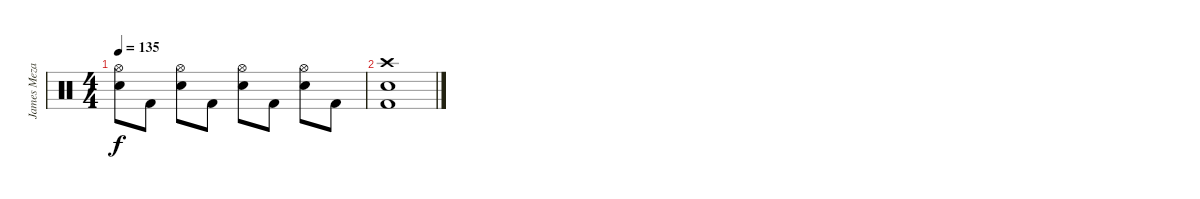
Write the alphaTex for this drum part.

\track ("James Meza - Drums" "James Meza") {instrument percussion}
\staff {score}
\articulation defaults
\ts (4 4)
\tempo 135
\clef neutral
\ks c
("Hi-Hat (open)" "Electric Snare (hit)").8{dy f} "Kick (hit) 2".8 ("Hi-Hat (open)" "Electric Snare (hit)").8 "Kick (hit) 2".8 ("Hi-Hat (open)" "Electric Snare (hit)").8 "Kick (hit) 2".8 ("Hi-Hat (open)" "Electric Snare (hit)").8 "Kick (hit) 2".8 |
("Crash high (hit)" "Electric Snare (hit)" "Kick (hit) 2").1
